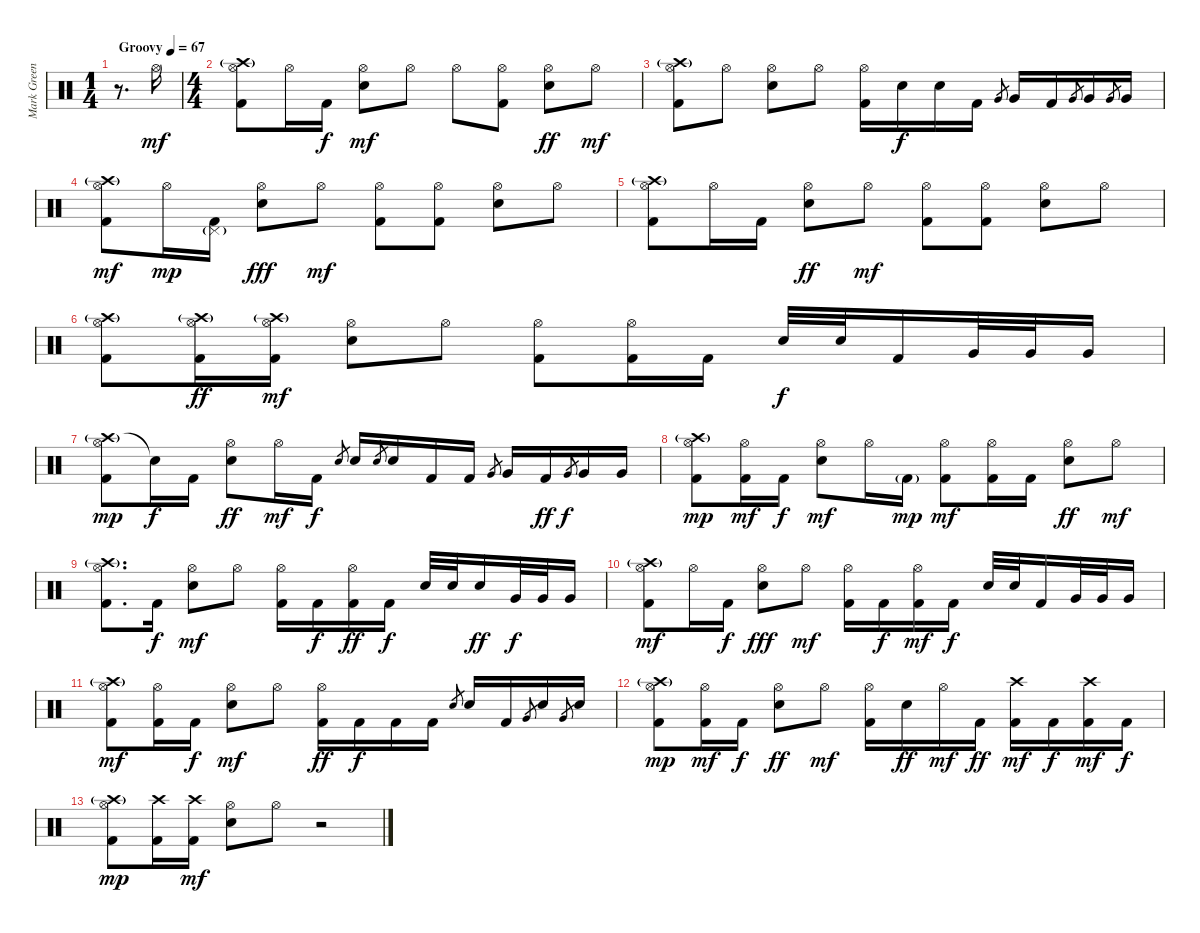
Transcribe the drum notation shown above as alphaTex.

\track ("Mark Greening" "Mark Green") {instrument percussion}
\staff {score}
\articulation defaults
\ts (1 4)
\tempo (67 "Groovy")
\clef neutral
\ks c
r.8{d dy mf volume 10} "Hi-Hat (open)".16 |
\ts (4 4)
("Crash high (hit)"{g} "Hi-Hat (open)" "Kick (hit) 2").8 "Hi-Hat (open)".16 "Kick (hit) 2".16{dy f} ("Hi-Hat (open)" "Electric Snare (hit)").8{dy mf} "Hi-Hat (open)".8 "Hi-Hat (open)".8 ("Hi-Hat (open)" "Kick (hit) 2").8 ("Hi-Hat (open)" "Electric Snare (hit)").8{dy ff} "Hi-Hat (open)".8{dy mf} |
("Crash high (hit)"{g} "Hi-Hat (open)" "Kick (hit) 2").8 "Hi-Hat (open)".8 ("Hi-Hat (open)" "Electric Snare (hit)").8 "Hi-Hat (open)".8 ("Hi-Hat (open)" "Kick (hit) 2").16 "Electric Snare (hit)".16{dy f} "Electric Snare (hit)".16 "Kick (hit) 2".16 "Very Low Tom (hit)".8{gr} "Very Low Tom (hit)".16 "Kick (hit) 2".16 "Very Low Tom (hit)".8{gr} "Very Low Tom (hit)".16 "Very Low Tom (hit)".8{gr} "Very Low Tom (hit)".16 |
("Crash high (hit)"{g} "Hi-Hat (open)" "Kick (hit) 2").8{dy mf} "Hi-Hat (open)".16{dy mp} ("Pedal Hi-Hat (hit)"{g} "Kick (hit) 2").16 ("Hi-Hat (open)" "Electric Snare (hit)").8{dy fff} "Hi-Hat (open)".8{dy mf} ("Hi-Hat (open)" "Kick (hit) 2").8 ("Hi-Hat (open)" "Kick (hit) 2").8 ("Hi-Hat (open)" "Electric Snare (hit)").8 "Hi-Hat (open)".8 |
("Crash high (hit)"{g} "Hi-Hat (open)" "Kick (hit) 2").8 "Hi-Hat (open)".16 "Kick (hit) 2".16 ("Hi-Hat (open)" "Electric Snare (hit)").8{dy ff} "Hi-Hat (open)".8{dy mf} ("Hi-Hat (open)" "Kick (hit) 2").8 ("Hi-Hat (open)" "Kick (hit) 2").8 ("Hi-Hat (open)" "Electric Snare (hit)").8 "Hi-Hat (open)".8 |
("Crash high (hit)"{g} "Hi-Hat (open)" "Kick (hit) 2").8 ("Crash high (hit)"{g} "Hi-Hat (open)" "Kick (hit) 2").16{dy ff} ("Crash high (hit)"{g} "Hi-Hat (open)" "Kick (hit) 2").16{dy mf} ("Hi-Hat (open)" "Electric Snare (hit)").8 "Hi-Hat (open)".8 ("Hi-Hat (open)" "Kick (hit) 2").8 ("Hi-Hat (open)" "Kick (hit) 2").16 "Kick (hit) 2".16 "Electric Snare (hit)".32{dy f} "Electric Snare (hit)".32 "Kick (hit) 2".16 "Very Low Tom (hit)".32 "Very Low Tom (hit)".32 "Very Low Tom (hit)".16 |
("Crash high (hit)"{g} "Hi-Hat (open)" "Kick (hit) 2").8{dy mp} "Snare (hit)"{t}.16{dy f} "Kick (hit) 2".16 ("Hi-Hat (open)" "Electric Snare (hit)").8{dy ff} "Hi-Hat (open)".16{dy mf} "Kick (hit) 2".16{dy f} "Electric Snare (hit)".8{gr} "Electric Snare (hit)".16 "Electric Snare (hit)".8{gr} "Electric Snare (hit)".16 "Kick (hit) 2".16 "Kick (hit) 2".16 "Very Low Tom (hit)".8{gr} "Very Low Tom (hit)".16 "Kick (hit) 2".16{dy ff} "Very Low Tom (hit)".8{gr dy f} "Very Low Tom (hit)".16 "Very Low Tom (hit)".16 |
("Crash high (hit)"{g} "Hi-Hat (open)" "Kick (hit) 2").8{dy mp} ("Hi-Hat (open)" "Kick (hit) 2").16{dy mf} "Kick (hit) 2".16{dy f} ("Hi-Hat (open)" "Electric Snare (hit)").8{dy mf} "Hi-Hat (open)".16 "Kick (hit) 2"{g}.16{dy mp} ("Hi-Hat (open)" "Kick (hit) 2").8{dy mf} ("Hi-Hat (open)" "Kick (hit) 2").16 "Kick (hit) 2".16 ("Hi-Hat (open)" "Electric Snare (hit)").8{dy ff} "Hi-Hat (open)".8{dy mf} |
("Crash high (hit)"{g} "Hi-Hat (open)" "Kick (hit) 2").8{d} "Kick (hit) 2".16{dy f} ("Hi-Hat (open)" "Electric Snare (hit)").8{dy mf} "Hi-Hat (open)".8 ("Hi-Hat (open)" "Kick (hit) 2").16 "Kick (hit) 2".16{dy f} ("Hi-Hat (open)" "Kick (hit) 2").16{dy ff} "Kick (hit) 2".16{dy f} "Electric Snare (hit)".32 "Electric Snare (hit)".32 "Electric Snare (hit)".16{dy ff} "Very Low Tom (hit)".32{dy f} "Very Low Tom (hit)".32 "Very Low Tom (hit)".16 |
("Crash high (hit)"{g} "Hi-Hat (open)" "Kick (hit) 2").8{dy mf volume 0} "Hi-Hat (open)".16 "Kick (hit) 2".16{dy f} ("Hi-Hat (open)" "Electric Snare (hit)").8{dy fff} "Hi-Hat (open)".8{dy mf} ("Hi-Hat (open)" "Kick (hit) 2").16 "Kick (hit) 2".16{dy f} ("Hi-Hat (open)" "Kick (hit) 2").16{dy mf} "Kick (hit) 2".16{dy f} "Electric Snare (hit)".32 "Electric Snare (hit)".32 "Kick (hit) 2".16 "Very Low Tom (hit)".32 "Very Low Tom (hit)".32 "Very Low Tom (hit)".16 |
("Crash high (hit)"{g} "Hi-Hat (open)" "Kick (hit) 2").8{dy mf} ("Hi-Hat (open)" "Kick (hit) 2").16 "Kick (hit) 2".16{dy f} ("Hi-Hat (open)" "Electric Snare (hit)").8{dy mf} "Hi-Hat (open)".8 ("Hi-Hat (open)" "Kick (hit) 2").16{dy ff} "Kick (hit) 2".16{dy f} "Kick (hit) 2".16 "Kick (hit) 2".16 "Electric Snare (hit)".8{gr} "Electric Snare (hit)".16 "Kick (hit) 2".16 "Very Low Tom (hit)".8{gr} "Electric Snare (hit)".16 "Very Low Tom (hit)".8{gr} "Electric Snare (hit)".16 |
("Crash high (hit)"{g} "Hi-Hat (open)" "Kick (hit) 2").8{dy mp} ("Hi-Hat (open)" "Kick (hit) 2").16{dy mf} "Kick (hit) 2".16{dy f} ("Hi-Hat (open)" "Electric Snare (hit)").8{dy ff} "Hi-Hat (open)".8{dy mf} ("Hi-Hat (open)" "Kick (hit) 2").16 "Electric Snare (hit)".16{dy ff} "Hi-Hat (open)".16{dy mf} "Kick (hit) 2".16{dy ff} ("Crash high (hit)" "Kick (hit) 2").16{dy mf} "Kick (hit) 2".16{dy f} ("Crash high (hit)" "Kick (hit) 2").16{dy mf} "Kick (hit) 2".16{dy f} |
("Crash high (hit)"{g} "Hi-Hat (open)" "Kick (hit) 2").8{dy mp} ("Crash high (hit)" "Kick (hit) 2").16 ("Crash high (hit)" "Kick (hit) 2").16{dy mf} ("Hi-Hat (open)" "Electric Snare (hit)").8 "Hi-Hat (open)".8 r.2
